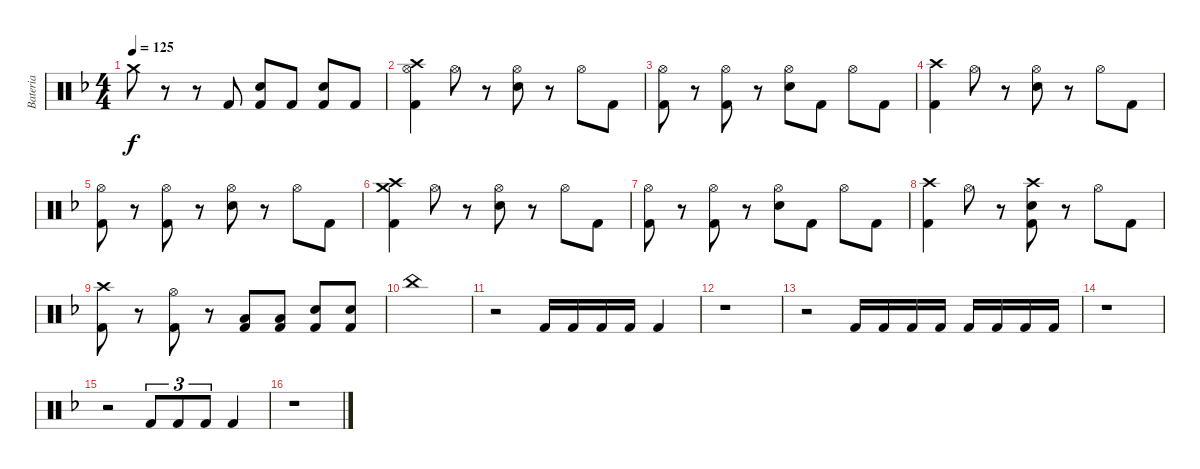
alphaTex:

\track ("Bateria" "Bateria") {instrument percussion}
\staff {score}
\articulation defaults
\ts (4 4)
\tempo 125
\clef neutral
\ks f "Crash medium (hit)".8{dy f}
r.8 r.8 "Kick (hit) 2".8 ("Electric Snare (hit)" "Kick (hit) 2").8 "Kick (hit) 2".8 ("Electric Snare (hit)" "Kick (hit) 2").8 "Kick (hit) 2".8 |
("Hi-Hat (open)" "Crash high (hit)" "Kick (hit) 2").4 "Hi-Hat (open)".8 r.8 ("Hi-Hat (open)" "Electric Snare (hit)").8 r.8 "Hi-Hat (open)".8 "Kick (hit) 2".8 |
("Hi-Hat (open)" "Kick (hit) 2").8 r.8 ("Hi-Hat (open)" "Kick (hit) 2").8 r.8 ("Hi-Hat (open)" "Electric Snare (hit)").8 "Kick (hit) 2".8 "Hi-Hat (open)".8 "Kick (hit) 2".8 |
("Crash high (hit)" "Kick (hit) 2").4 "Hi-Hat (open)".8 r.8 ("Hi-Hat (open)" "Electric Snare (hit)").8 r.8 "Hi-Hat (open)".8 "Kick (hit) 2".8 |
("Hi-Hat (open)" "Kick (hit) 2").8 r.8 ("Hi-Hat (open)" "Kick (hit) 2").8 r.8 ("Hi-Hat (open)" "Electric Snare (hit)").8 r.8 "Hi-Hat (open)".8 "Kick (hit) 2".8 |
("Crash medium (hit)" "Crash high (hit)" "Kick (hit) 2").4 "Hi-Hat (open)".8 r.8 ("Hi-Hat (open)" "Electric Snare (hit)").8 r.8 "Hi-Hat (open)".8 "Kick (hit) 2".8 |
("Hi-Hat (open)" "Kick (hit) 2").8 r.8 ("Hi-Hat (open)" "Kick (hit) 2").8 r.8 ("Hi-Hat (open)" "Electric Snare (hit)").8 "Kick (hit) 2".8 "Hi-Hat (open)".8 "Kick (hit) 2".8 |
("Crash high (hit)" "Kick (hit) 2").4 "Hi-Hat (open)".8 r.8 ("Crash high (hit)" "Electric Snare (hit)" "Kick (hit) 2").8 r.8 "Hi-Hat (open)".8 "Kick (hit) 2".8 |
("Crash high (hit)" "Kick (hit) 2").8 r.8 ("Hi-Hat (open)" "Kick (hit) 2").8 r.8 ("Low Tom (hit)" "Kick (hit) 2").8 ("Low Tom (hit)" "Kick (hit) 2").8 ("Snare (hit) 2" "Kick (hit) 2").8 ("Snare (hit) 2" "Kick (hit) 2").8 |
"China (hit)".1 |
r.2{volume 4} "Kick (hit) 2".16 "Kick (hit) 2".16 "Kick (hit) 2".16 "Kick (hit) 2".16 "Kick (hit) 2".4 |
r.1 |
r.2{volume 4} "Kick (hit) 2".16 "Kick (hit) 2".16 "Kick (hit) 2".16 "Kick (hit) 2".16 "Kick (hit) 2".16 "Kick (hit) 2".16 "Kick (hit) 2".16 "Kick (hit) 2".16 |
r.1 |
r.2{volume 4} "Kick (hit) 2".8{tu (3 2)} "Kick (hit) 2".8{tu (3 2)} "Kick (hit) 2".8{tu (3 2)} "Kick (hit) 2".4 |
r.1
